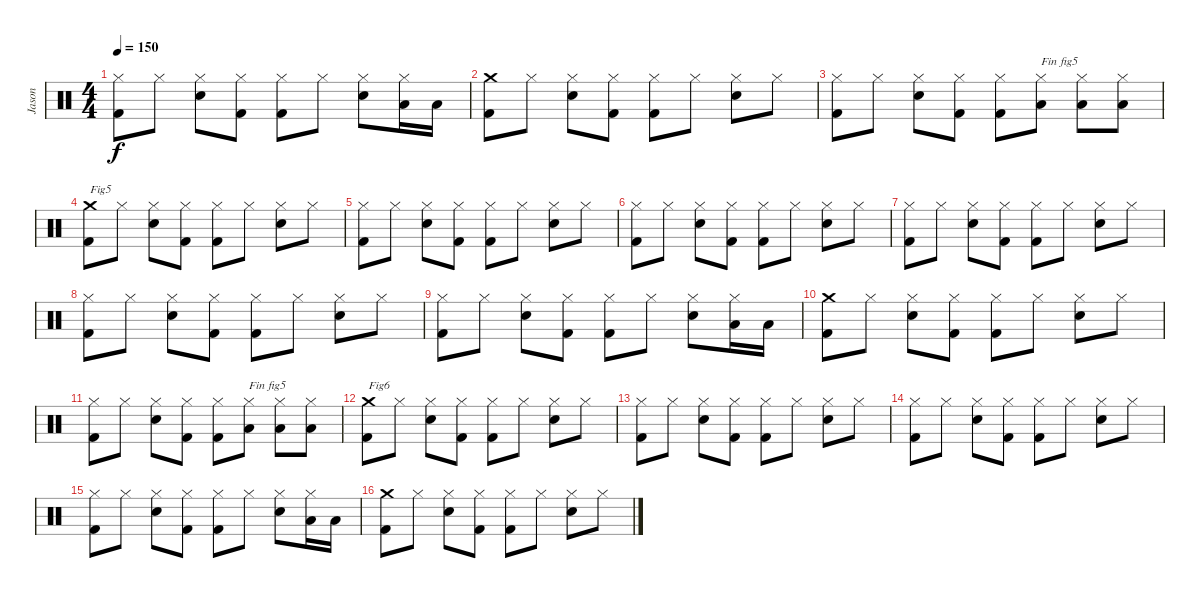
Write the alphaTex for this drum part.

\track ("Jason" "Jason") {instrument percussion}
\staff {score}
\articulation defaults
\ts (4 4)
\tempo 150
\clef neutral
\ks c
("Kick (hit) 2" "Hi-Hat (closed)").8{dy f} "Hi-Hat (closed)".8 ("Electric Snare (hit)" "Hi-Hat (closed)").8 ("Kick (hit) 2" "Hi-Hat (closed)").8 ("Kick (hit) 2" "Hi-Hat (closed)").8 "Hi-Hat (closed)".8 ("Electric Snare (hit)" "Hi-Hat (closed)").8 ("Low Tom (hit)" "Hi-Hat (closed)").16 "Low Tom (hit)".16 |
("Kick (hit) 2" "Crash medium (hit)").8 "Hi-Hat (closed)".8 ("Electric Snare (hit)" "Hi-Hat (closed)").8 ("Kick (hit) 2" "Hi-Hat (closed)").8 ("Kick (hit) 2" "Hi-Hat (closed)").8 "Hi-Hat (closed)".8 ("Electric Snare (hit)" "Hi-Hat (closed)").8 "Hi-Hat (closed)".8 |
("Kick (hit) 2" "Hi-Hat (closed)").8 "Hi-Hat (closed)".8 ("Electric Snare (hit)" "Hi-Hat (closed)").8 ("Kick (hit) 2" "Hi-Hat (closed)").8 ("Kick (hit) 2" "Hi-Hat (closed)").8 ("Low Tom (hit)" "Hi-Hat (closed)").8{txt "Fin fig5"} ("Low Tom (hit)" "Hi-Hat (closed)").8 ("Low Tom (hit)" "Hi-Hat (closed)").8 |
("Kick (hit) 2" "Crash medium (hit)").8{txt "Fig5"} "Hi-Hat (closed)".8 ("Electric Snare (hit)" "Hi-Hat (closed)").8 ("Kick (hit) 2" "Hi-Hat (closed)").8 ("Kick (hit) 2" "Hi-Hat (closed)").8 "Hi-Hat (closed)".8 ("Electric Snare (hit)" "Hi-Hat (closed)").8 "Hi-Hat (closed)".8 |
("Kick (hit) 2" "Hi-Hat (closed)").8 "Hi-Hat (closed)".8 ("Electric Snare (hit)" "Hi-Hat (closed)").8 ("Kick (hit) 2" "Hi-Hat (closed)").8 ("Kick (hit) 2" "Hi-Hat (closed)").8 "Hi-Hat (closed)".8 ("Electric Snare (hit)" "Hi-Hat (closed)").8 "Hi-Hat (closed)".8 |
("Kick (hit) 2" "Hi-Hat (closed)").8 "Hi-Hat (closed)".8 ("Electric Snare (hit)" "Hi-Hat (closed)").8 ("Kick (hit) 2" "Hi-Hat (closed)").8 ("Kick (hit) 2" "Hi-Hat (closed)").8 "Hi-Hat (closed)".8 ("Electric Snare (hit)" "Hi-Hat (closed)").8 "Hi-Hat (closed)".8 |
("Kick (hit) 2" "Hi-Hat (closed)").8 "Hi-Hat (closed)".8 ("Electric Snare (hit)" "Hi-Hat (closed)").8 ("Kick (hit) 2" "Hi-Hat (closed)").8 ("Kick (hit) 2" "Hi-Hat (closed)").8 "Hi-Hat (closed)".8 ("Electric Snare (hit)" "Hi-Hat (closed)").8 "Hi-Hat (closed)".8 |
("Kick (hit) 2" "Hi-Hat (closed)").8 "Hi-Hat (closed)".8 ("Electric Snare (hit)" "Hi-Hat (closed)").8 ("Kick (hit) 2" "Hi-Hat (closed)").8 ("Kick (hit) 2" "Hi-Hat (closed)").8 "Hi-Hat (closed)".8 ("Electric Snare (hit)" "Hi-Hat (closed)").8 "Hi-Hat (closed)".8 |
("Kick (hit) 2" "Hi-Hat (closed)").8 "Hi-Hat (closed)".8 ("Electric Snare (hit)" "Hi-Hat (closed)").8 ("Kick (hit) 2" "Hi-Hat (closed)").8 ("Kick (hit) 2" "Hi-Hat (closed)").8 "Hi-Hat (closed)".8 ("Electric Snare (hit)" "Hi-Hat (closed)").8 ("Low Tom (hit)" "Hi-Hat (closed)").16 "Low Tom (hit)".16 |
("Kick (hit) 2" "Crash medium (hit)").8 "Hi-Hat (closed)".8 ("Electric Snare (hit)" "Hi-Hat (closed)").8 ("Kick (hit) 2" "Hi-Hat (closed)").8 ("Kick (hit) 2" "Hi-Hat (closed)").8 "Hi-Hat (closed)".8 ("Electric Snare (hit)" "Hi-Hat (closed)").8 "Hi-Hat (closed)".8 |
("Kick (hit) 2" "Hi-Hat (closed)").8 "Hi-Hat (closed)".8 ("Electric Snare (hit)" "Hi-Hat (closed)").8 ("Kick (hit) 2" "Hi-Hat (closed)").8 ("Kick (hit) 2" "Hi-Hat (closed)").8 ("Low Tom (hit)" "Hi-Hat (closed)").8{txt "Fin fig5"} ("Low Tom (hit)" "Hi-Hat (closed)").8 ("Low Tom (hit)" "Hi-Hat (closed)").8 |
("Kick (hit) 2" "Crash medium (hit)").8{txt "Fig6"} "Hi-Hat (closed)".8 ("Electric Snare (hit)" "Hi-Hat (closed)").8 ("Kick (hit) 2" "Hi-Hat (closed)").8 ("Kick (hit) 2" "Hi-Hat (closed)").8 "Hi-Hat (closed)".8 ("Electric Snare (hit)" "Hi-Hat (closed)").8 "Hi-Hat (closed)".8 |
("Kick (hit) 2" "Hi-Hat (closed)").8 "Hi-Hat (closed)".8 ("Electric Snare (hit)" "Hi-Hat (closed)").8 ("Kick (hit) 2" "Hi-Hat (closed)").8 ("Kick (hit) 2" "Hi-Hat (closed)").8 "Hi-Hat (closed)".8 ("Electric Snare (hit)" "Hi-Hat (closed)").8 "Hi-Hat (closed)".8 |
("Kick (hit) 2" "Hi-Hat (closed)").8 "Hi-Hat (closed)".8 ("Electric Snare (hit)" "Hi-Hat (closed)").8 ("Kick (hit) 2" "Hi-Hat (closed)").8 ("Kick (hit) 2" "Hi-Hat (closed)").8 "Hi-Hat (closed)".8 ("Electric Snare (hit)" "Hi-Hat (closed)").8 "Hi-Hat (closed)".8 |
("Kick (hit) 2" "Hi-Hat (closed)").8 "Hi-Hat (closed)".8 ("Electric Snare (hit)" "Hi-Hat (closed)").8 ("Kick (hit) 2" "Hi-Hat (closed)").8 ("Kick (hit) 2" "Hi-Hat (closed)").8 "Hi-Hat (closed)".8 ("Electric Snare (hit)" "Hi-Hat (closed)").8 ("Low Tom (hit)" "Hi-Hat (closed)").16 "Low Tom (hit)".16 |
("Kick (hit) 2" "Crash medium (hit)").8 "Hi-Hat (closed)".8 ("Electric Snare (hit)" "Hi-Hat (closed)").8 ("Kick (hit) 2" "Hi-Hat (closed)").8 ("Kick (hit) 2" "Hi-Hat (closed)").8 "Hi-Hat (closed)".8 ("Electric Snare (hit)" "Hi-Hat (closed)").8 "Hi-Hat (closed)".8
